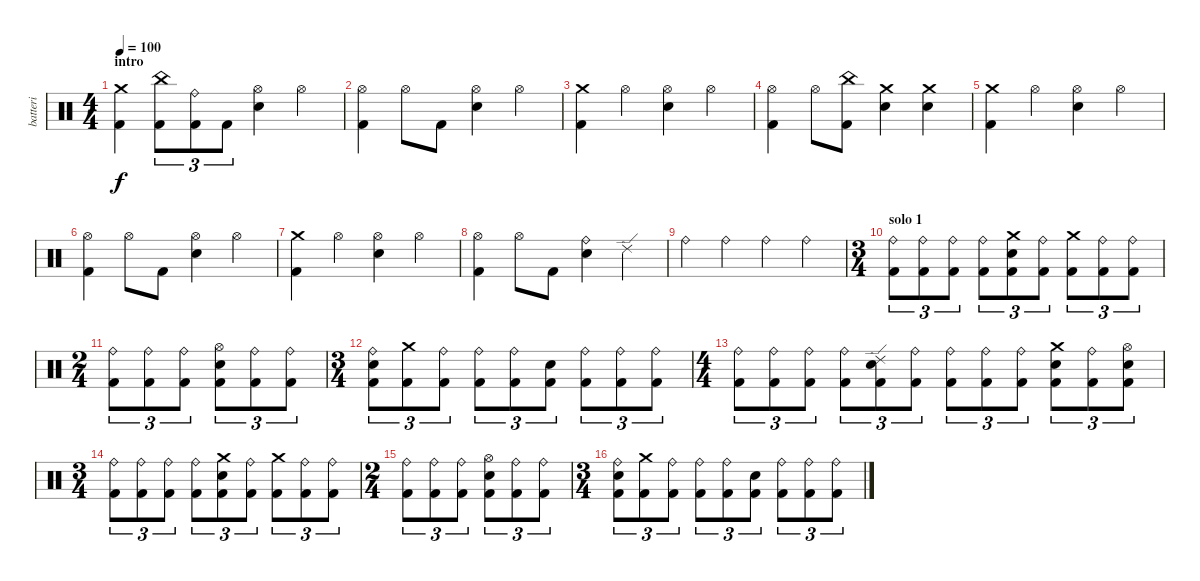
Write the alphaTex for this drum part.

\track ("batteri" "batteri") {instrument percussion}
\staff {score}
\articulation defaults
\ts (4 4)
\section ("" "intro")
\tempo 100
\clef neutral
\ks c
("Crash medium (hit)" "Kick (hit) 2").4{dy f} ("China (hit)" "Kick (hit) 2").8{tu (3 2)} ("Ride (bell)" "Kick (hit) 2").8{tu (3 2)} "Kick (hit) 2".8{tu (3 2)} ("Hi-Hat (open)" "Electric Snare (hit)").4 "Hi-Hat (open)".4 |
("Hi-Hat (open)" "Kick (hit) 2").4 "Hi-Hat (open)".8 "Kick (hit) 2".8 ("Hi-Hat (open)" "Electric Snare (hit)").4 "Hi-Hat (open)".4 |
("Crash medium (hit)" "Kick (hit) 2").4 "Hi-Hat (open)".4 ("Hi-Hat (open)" "Electric Snare (hit)").4 "Hi-Hat (open)".4 |
("Hi-Hat (open)" "Kick (hit) 2").4 "Hi-Hat (open)".8 ("China (hit)" "Kick (hit) 2").8 ("Crash medium (hit)" "Electric Snare (hit)").4 ("Crash medium (hit)" "Electric Snare (hit)").4 |
("Crash medium (hit)" "Kick (hit) 2").4 "Hi-Hat (open)".4 ("Hi-Hat (open)" "Electric Snare (hit)").4 "Hi-Hat (open)".4 |
("Hi-Hat (open)" "Kick (hit) 2").4 "Hi-Hat (open)".8 "Kick (hit) 2".8 ("Hi-Hat (open)" "Electric Snare (hit)").4 "Hi-Hat (open)".4 |
("Crash medium (hit)" "Kick (hit) 2").4 "Hi-Hat (open)".4 ("Hi-Hat (open)" "Electric Snare (hit)").4 "Hi-Hat (open)".4 |
("Hi-Hat (open)" "Kick (hit) 2").4 "Hi-Hat (open)".8 "Kick (hit) 2".8 ("Ride (bell)" "Electric Snare (hit)").4 "Ride (edge) 2".4 |
"Ride (bell)".4 "Ride (bell)".4 "Ride (bell)".4 "Ride (bell)".4 |
\ts (3 4)
\section ("" "solo 1")
("Ride (bell)" "Kick (hit) 2").8{tu (3 2)} ("Ride (bell)" "Kick (hit) 2").8{tu (3 2)} ("Ride (bell)" "Kick (hit) 2").8{tu (3 2)} ("Ride (bell)" "Kick (hit) 2").8{tu (3 2)} ("Crash medium (hit)" "Electric Snare (hit)" "Kick (hit) 2").8{tu (3 2)} ("Ride (bell)" "Kick (hit) 2").8{tu (3 2)} ("Crash medium (hit)" "Kick (hit) 2").8{tu (3 2)} ("Ride (bell)" "Kick (hit) 2").8{tu (3 2)} ("Ride (bell)" "Kick (hit) 2").8{tu (3 2)} |
\ts (2 4)
("Ride (bell)" "Kick (hit) 2").8{tu (3 2)} ("Ride (bell)" "Kick (hit) 2").8{tu (3 2)} ("Ride (bell)" "Kick (hit) 2").8{tu (3 2)} ("Hi-Hat (open)" "Electric Snare (hit)" "Kick (hit) 2").8{tu (3 2)} ("Ride (bell)" "Kick (hit) 2").8{tu (3 2)} ("Ride (bell)" "Kick (hit) 2").8{tu (3 2)} |
\ts (3 4)
("Electric Snare (hit)" "Ride (bell)" "Kick (hit) 2").8{tu (3 2)} ("Crash medium (hit)" "Kick (hit) 2").8{tu (3 2)} ("Ride (bell)" "Kick (hit) 2").8{tu (3 2)} ("Ride (bell)" "Kick (hit) 2").8{tu (3 2)} ("Ride (bell)" "Kick (hit) 2").8{tu (3 2)} ("Electric Snare (hit)" "Kick (hit) 2").8{tu (3 2)} ("Ride (bell)" "Kick (hit) 2").8{tu (3 2)} ("Ride (bell)" "Kick (hit) 2").8{tu (3 2)} ("Ride (bell)" "Kick (hit) 2").8{tu (3 2)} |
\ts (4 4)
("Ride (bell)" "Kick (hit) 2").8{tu (3 2)} ("Ride (bell)" "Kick (hit) 2").8{tu (3 2)} ("Ride (bell)" "Kick (hit) 2").8{tu (3 2)} ("Ride (bell)" "Kick (hit) 2").8{tu (3 2)} ("Ride (edge) 2" "Electric Snare (hit)" "Kick (hit) 2").8{tu (3 2)} ("Ride (bell)" "Kick (hit) 2").8{tu (3 2)} ("Ride (bell)" "Kick (hit) 2").8{tu (3 2)} ("Ride (bell)" "Kick (hit) 2").8{tu (3 2)} ("Ride (bell)" "Kick (hit) 2").8{tu (3 2)} ("Crash medium (hit)" "Electric Snare (hit)" "Kick (hit) 2").8{tu (3 2)} ("Ride (bell)" "Kick (hit) 2").8{tu (3 2)} ("Hi-Hat (open)" "Electric Snare (hit)" "Kick (hit) 2").8{tu (3 2)} |
\ts (3 4)
("Ride (bell)" "Kick (hit) 2").8{tu (3 2)} ("Ride (bell)" "Kick (hit) 2").8{tu (3 2)} ("Ride (bell)" "Kick (hit) 2").8{tu (3 2)} ("Ride (bell)" "Kick (hit) 2").8{tu (3 2)} ("Crash medium (hit)" "Electric Snare (hit)" "Kick (hit) 2").8{tu (3 2)} ("Ride (bell)" "Kick (hit) 2").8{tu (3 2)} ("Crash medium (hit)" "Kick (hit) 2").8{tu (3 2)} ("Ride (bell)" "Kick (hit) 2").8{tu (3 2)} ("Ride (bell)" "Kick (hit) 2").8{tu (3 2)} |
\ts (2 4)
("Ride (bell)" "Kick (hit) 2").8{tu (3 2)} ("Ride (bell)" "Kick (hit) 2").8{tu (3 2)} ("Ride (bell)" "Kick (hit) 2").8{tu (3 2)} ("Hi-Hat (open)" "Electric Snare (hit)" "Kick (hit) 2").8{tu (3 2)} ("Ride (bell)" "Kick (hit) 2").8{tu (3 2)} ("Ride (bell)" "Kick (hit) 2").8{tu (3 2)} |
\ts (3 4)
("Electric Snare (hit)" "Ride (bell)" "Kick (hit) 2").8{tu (3 2)} ("Crash medium (hit)" "Kick (hit) 2").8{tu (3 2)} ("Ride (bell)" "Kick (hit) 2").8{tu (3 2)} ("Ride (bell)" "Kick (hit) 2").8{tu (3 2)} ("Ride (bell)" "Kick (hit) 2").8{tu (3 2)} ("Electric Snare (hit)" "Kick (hit) 2").8{tu (3 2)} ("Ride (bell)" "Kick (hit) 2").8{tu (3 2)} ("Ride (bell)" "Kick (hit) 2").8{tu (3 2)} ("Ride (bell)" "Kick (hit) 2").8{tu (3 2)}
